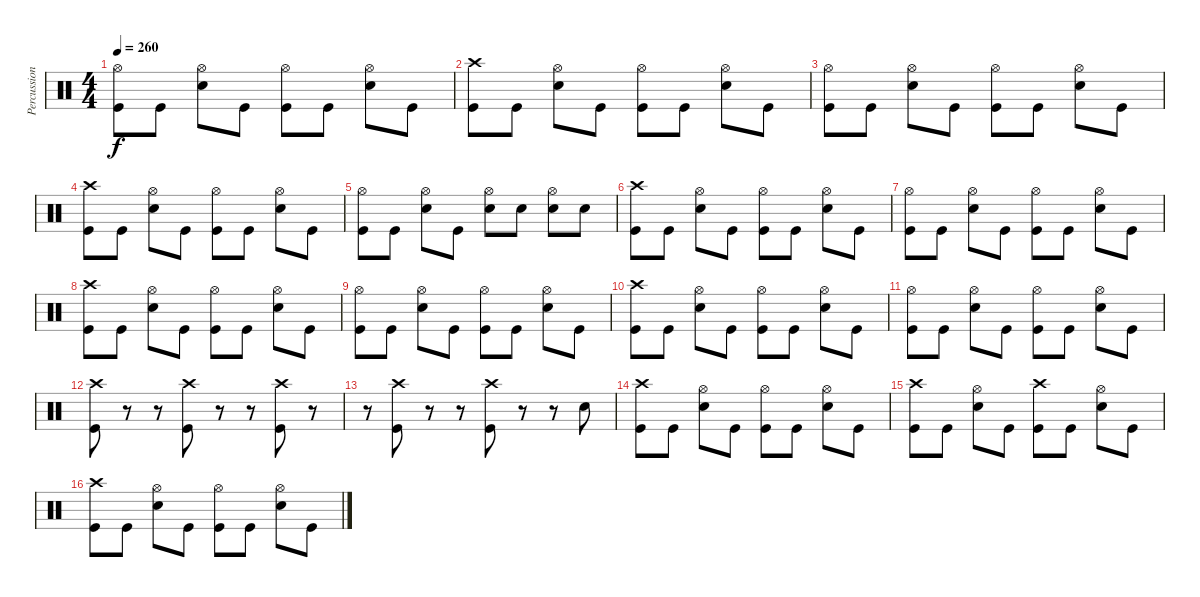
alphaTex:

\track ("Percussion" "Percussion") {instrument percussion}
\staff {score}
\articulation defaults
\ts (4 4)
\tempo 260
\clef neutral
\ks c
("Hi-Hat (open)" "Kick (hit)").8{dy f} "Kick (hit)".8 ("Hi-Hat (open)" "Snare (hit) 2").8 "Kick (hit)".8 ("Hi-Hat (open)" "Kick (hit)").8 "Kick (hit)".8 ("Hi-Hat (open)" "Snare (hit) 2").8 "Kick (hit)".8 |
("Crash high (hit)" "Kick (hit)").8 "Kick (hit)".8 ("Hi-Hat (open)" "Snare (hit) 2").8 "Kick (hit)".8 ("Hi-Hat (open)" "Kick (hit)").8 "Kick (hit)".8 ("Hi-Hat (open)" "Snare (hit) 2").8 "Kick (hit)".8 |
("Hi-Hat (open)" "Kick (hit)").8 "Kick (hit)".8 ("Hi-Hat (open)" "Snare (hit) 2").8 "Kick (hit)".8 ("Hi-Hat (open)" "Kick (hit)").8 "Kick (hit)".8 ("Hi-Hat (open)" "Snare (hit) 2").8 "Kick (hit)".8 |
("Crash high (hit)" "Kick (hit)").8 "Kick (hit)".8 ("Hi-Hat (open)" "Snare (hit) 2").8 "Kick (hit)".8 ("Hi-Hat (open)" "Kick (hit)").8 "Kick (hit)".8 ("Hi-Hat (open)" "Snare (hit) 2").8 "Kick (hit)".8 |
("Hi-Hat (open)" "Kick (hit)").8 "Kick (hit)".8 ("Hi-Hat (open)" "Snare (hit) 2").8 "Kick (hit)".8 ("Hi-Hat (open)" "Snare (hit) 2").8 "Snare (hit) 2".8 ("Hi-Hat (open)" "Snare (hit) 2").8 "Snare (hit) 2".8 |
("Crash high (hit)" "Kick (hit)").8 "Kick (hit)".8 ("Hi-Hat (open)" "Snare (hit) 2").8 "Kick (hit)".8 ("Hi-Hat (open)" "Kick (hit)").8 "Kick (hit)".8 ("Hi-Hat (open)" "Snare (hit) 2").8 "Kick (hit)".8 |
("Hi-Hat (open)" "Kick (hit)").8 "Kick (hit)".8 ("Hi-Hat (open)" "Snare (hit) 2").8 "Kick (hit)".8 ("Hi-Hat (open)" "Kick (hit)").8 "Kick (hit)".8 ("Hi-Hat (open)" "Snare (hit) 2").8 "Kick (hit)".8 |
("Crash high (hit)" "Kick (hit)").8 "Kick (hit)".8 ("Hi-Hat (open)" "Snare (hit) 2").8 "Kick (hit)".8 ("Hi-Hat (open)" "Kick (hit)").8 "Kick (hit)".8 ("Hi-Hat (open)" "Snare (hit) 2").8 "Kick (hit)".8 |
("Hi-Hat (open)" "Kick (hit)").8 "Kick (hit)".8 ("Hi-Hat (open)" "Snare (hit) 2").8 "Kick (hit)".8 ("Hi-Hat (open)" "Kick (hit)").8 "Kick (hit)".8 ("Hi-Hat (open)" "Snare (hit) 2").8 "Kick (hit)".8 |
("Crash high (hit)" "Kick (hit)").8 "Kick (hit)".8 ("Hi-Hat (open)" "Snare (hit) 2").8 "Kick (hit)".8 ("Hi-Hat (open)" "Kick (hit)").8 "Kick (hit)".8 ("Hi-Hat (open)" "Snare (hit) 2").8 "Kick (hit)".8 |
("Hi-Hat (open)" "Kick (hit)").8 "Kick (hit)".8 ("Hi-Hat (open)" "Snare (hit) 2").8 "Kick (hit)".8 ("Hi-Hat (open)" "Kick (hit)").8 "Kick (hit)".8 ("Hi-Hat (open)" "Snare (hit) 2").8 "Kick (hit)".8 |
("Crash high (hit)" "Kick (hit)").8 r.8 r.8 ("Crash high (hit)" "Kick (hit)").8 r.8 r.8 ("Crash high (hit)" "Kick (hit)").8 r.8 |
r.8 ("Crash high (hit)" "Kick (hit)").8 r.8 r.8 ("Crash high (hit)" "Kick (hit)").8 r.8 r.8 "Snare (hit) 2".8 |
("Crash high (hit)" "Kick (hit)").8 "Kick (hit)".8 ("Hi-Hat (open)" "Snare (hit) 2").8 "Kick (hit)".8 ("Hi-Hat (open)" "Kick (hit)").8 "Kick (hit)".8 ("Hi-Hat (open)" "Snare (hit) 2").8 "Kick (hit)".8 |
("Crash high (hit)" "Kick (hit)").8 "Kick (hit)".8 ("Hi-Hat (open)" "Snare (hit) 2").8 "Kick (hit)".8 ("Crash high (hit)" "Kick (hit)").8 "Kick (hit)".8 ("Hi-Hat (open)" "Snare (hit) 2").8 "Kick (hit)".8 |
("Crash high (hit)" "Kick (hit)").8 "Kick (hit)".8 ("Hi-Hat (open)" "Snare (hit) 2").8 "Kick (hit)".8 ("Hi-Hat (open)" "Kick (hit)").8 "Kick (hit)".8 ("Hi-Hat (open)" "Snare (hit) 2").8 "Kick (hit)".8
